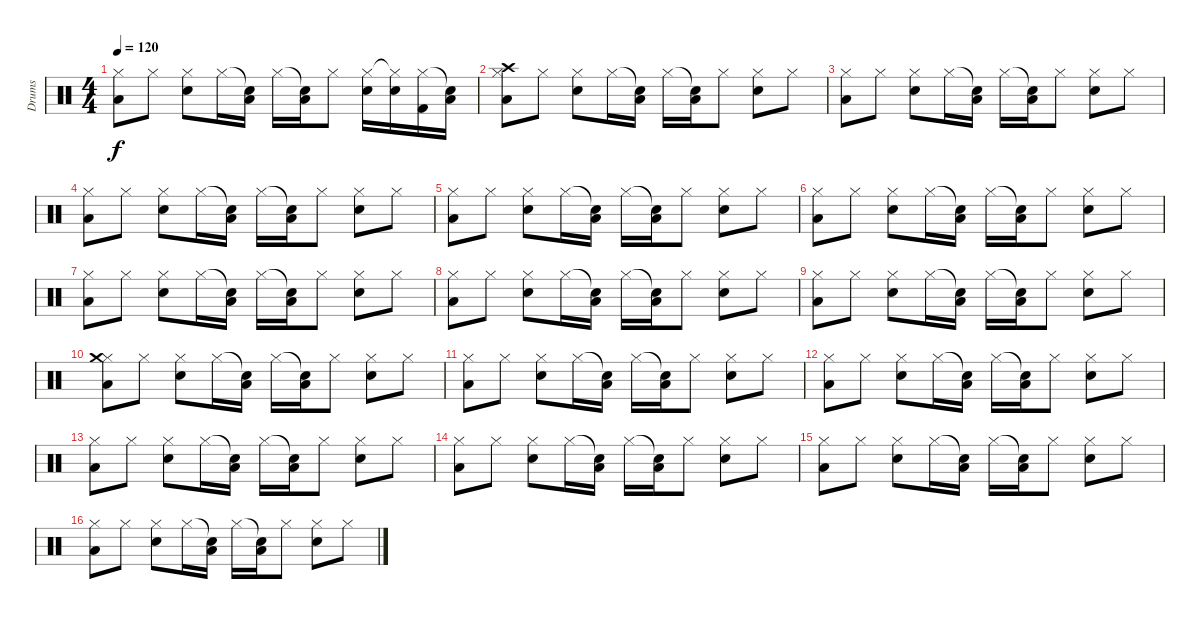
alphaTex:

\track ("Drums" "Drums") {instrument percussion}
\staff {score}
\articulation defaults
\ts (4 4)
\tempo 120
\clef neutral
\ks c
("Hi-Hat (closed)" "Low Tom (hit)").8{dy f} "Hi-Hat (closed)".8 ("Hi-Hat (closed)" "Snare (hit) 2").8 "Hi-Hat (closed)".16 ("Snare (hit)"{t} "Low Tom (hit)").16 "Hi-Hat (closed)".16 ("Snare (hit)"{t} "Low Tom (hit)").16 "Hi-Hat (closed)".8 ("Hi-Hat (closed)" "Snare (hit) 2").16 ("Hi-Hat (closed)"{t} "Snare (hit) 2").16 ("Hi-Hat (closed)" "Kick (hit) 2").16 ("Snare (hit)"{t} "Low Tom (hit)").16 |
("Hi-Hat (closed)" "Low Tom (hit)" "Crash high (hit)").8 "Hi-Hat (closed)".8 ("Hi-Hat (closed)" "Snare (hit) 2").8 "Hi-Hat (closed)".16 ("Snare (hit)"{t} "Low Tom (hit)").16 "Hi-Hat (closed)".16 ("Snare (hit)"{t} "Low Tom (hit)").16 "Hi-Hat (closed)".8 ("Hi-Hat (closed)" "Snare (hit) 2").8 "Hi-Hat (closed)".8 |
("Hi-Hat (closed)" "Low Tom (hit)").8 "Hi-Hat (closed)".8 ("Hi-Hat (closed)" "Snare (hit) 2").8 "Hi-Hat (closed)".16 ("Snare (hit)"{t} "Low Tom (hit)").16 "Hi-Hat (closed)".16 ("Snare (hit)"{t} "Low Tom (hit)").16 "Hi-Hat (closed)".8 ("Hi-Hat (closed)" "Snare (hit) 2").8 "Hi-Hat (closed)".8 |
("Hi-Hat (closed)" "Low Tom (hit)").8 "Hi-Hat (closed)".8 ("Hi-Hat (closed)" "Snare (hit) 2").8 "Hi-Hat (closed)".16 ("Snare (hit)"{t} "Low Tom (hit)").16 "Hi-Hat (closed)".16 ("Snare (hit)"{t} "Low Tom (hit)").16 "Hi-Hat (closed)".8 ("Hi-Hat (closed)" "Snare (hit) 2").8 "Hi-Hat (closed)".8 |
("Hi-Hat (closed)" "Low Tom (hit)").8 "Hi-Hat (closed)".8 ("Hi-Hat (closed)" "Snare (hit) 2").8 "Hi-Hat (closed)".16 ("Snare (hit)"{t} "Low Tom (hit)").16 "Hi-Hat (closed)".16 ("Snare (hit)"{t} "Low Tom (hit)").16 "Hi-Hat (closed)".8 ("Hi-Hat (closed)" "Snare (hit) 2").8 "Hi-Hat (closed)".8 |
("Hi-Hat (closed)" "Low Tom (hit)").8 "Hi-Hat (closed)".8 ("Hi-Hat (closed)" "Snare (hit) 2").8 "Hi-Hat (closed)".16 ("Snare (hit)"{t} "Low Tom (hit)").16 "Hi-Hat (closed)".16 ("Snare (hit)"{t} "Low Tom (hit)").16 "Hi-Hat (closed)".8 ("Hi-Hat (closed)" "Snare (hit) 2").8 "Hi-Hat (closed)".8 |
("Hi-Hat (closed)" "Low Tom (hit)").8 "Hi-Hat (closed)".8 ("Hi-Hat (closed)" "Snare (hit) 2").8 "Hi-Hat (closed)".16 ("Snare (hit)"{t} "Low Tom (hit)").16 "Hi-Hat (closed)".16 ("Snare (hit)"{t} "Low Tom (hit)").16 "Hi-Hat (closed)".8 ("Hi-Hat (closed)" "Snare (hit) 2").8 "Hi-Hat (closed)".8 |
("Hi-Hat (closed)" "Low Tom (hit)").8 "Hi-Hat (closed)".8 ("Hi-Hat (closed)" "Snare (hit) 2").8 "Hi-Hat (closed)".16 ("Snare (hit)"{t} "Low Tom (hit)").16 "Hi-Hat (closed)".16 ("Snare (hit)"{t} "Low Tom (hit)").16 "Hi-Hat (closed)".8 ("Hi-Hat (closed)" "Snare (hit) 2").8 "Hi-Hat (closed)".8 |
("Hi-Hat (closed)" "Low Tom (hit)").8 "Hi-Hat (closed)".8 ("Hi-Hat (closed)" "Snare (hit) 2").8 "Hi-Hat (closed)".16 ("Snare (hit)"{t} "Low Tom (hit)").16 "Hi-Hat (closed)".16 ("Snare (hit)"{t} "Low Tom (hit)").16 "Hi-Hat (closed)".8 ("Hi-Hat (closed)" "Snare (hit) 2").8 "Hi-Hat (closed)".8 |
("Hi-Hat (closed)" "Low Tom (hit)" "Crash medium (hit)").8 "Hi-Hat (closed)".8 ("Hi-Hat (closed)" "Snare (hit) 2").8 "Hi-Hat (closed)".16 ("Snare (hit)"{t} "Low Tom (hit)").16 "Hi-Hat (closed)".16 ("Snare (hit)"{t} "Low Tom (hit)").16 "Hi-Hat (closed)".8 ("Hi-Hat (closed)" "Snare (hit) 2").8 "Hi-Hat (closed)".8 |
("Hi-Hat (closed)" "Low Tom (hit)").8 "Hi-Hat (closed)".8 ("Hi-Hat (closed)" "Snare (hit) 2").8 "Hi-Hat (closed)".16 ("Snare (hit)"{t} "Low Tom (hit)").16 "Hi-Hat (closed)".16 ("Snare (hit)"{t} "Low Tom (hit)").16 "Hi-Hat (closed)".8 ("Hi-Hat (closed)" "Snare (hit) 2").8 "Hi-Hat (closed)".8 |
("Hi-Hat (closed)" "Low Tom (hit)").8 "Hi-Hat (closed)".8 ("Hi-Hat (closed)" "Snare (hit) 2").8 "Hi-Hat (closed)".16 ("Snare (hit)"{t} "Low Tom (hit)").16 "Hi-Hat (closed)".16 ("Snare (hit)"{t} "Low Tom (hit)").16 "Hi-Hat (closed)".8 ("Hi-Hat (closed)" "Snare (hit) 2").8 "Hi-Hat (closed)".8 |
("Hi-Hat (closed)" "Low Tom (hit)").8 "Hi-Hat (closed)".8 ("Hi-Hat (closed)" "Snare (hit) 2").8 "Hi-Hat (closed)".16 ("Snare (hit)"{t} "Low Tom (hit)").16 "Hi-Hat (closed)".16 ("Snare (hit)"{t} "Low Tom (hit)").16 "Hi-Hat (closed)".8 ("Hi-Hat (closed)" "Snare (hit) 2").8 "Hi-Hat (closed)".8 |
("Hi-Hat (closed)" "Low Tom (hit)").8 "Hi-Hat (closed)".8 ("Hi-Hat (closed)" "Snare (hit) 2").8 "Hi-Hat (closed)".16 ("Snare (hit)"{t} "Low Tom (hit)").16 "Hi-Hat (closed)".16 ("Snare (hit)"{t} "Low Tom (hit)").16 "Hi-Hat (closed)".8 ("Hi-Hat (closed)" "Snare (hit) 2").8 "Hi-Hat (closed)".8 |
("Hi-Hat (closed)" "Low Tom (hit)").8 "Hi-Hat (closed)".8 ("Hi-Hat (closed)" "Snare (hit) 2").8 "Hi-Hat (closed)".16 ("Snare (hit)"{t} "Low Tom (hit)").16 "Hi-Hat (closed)".16 ("Snare (hit)"{t} "Low Tom (hit)").16 "Hi-Hat (closed)".8 ("Hi-Hat (closed)" "Snare (hit) 2").8 "Hi-Hat (closed)".8 |
("Hi-Hat (closed)" "Low Tom (hit)").8 "Hi-Hat (closed)".8 ("Hi-Hat (closed)" "Snare (hit) 2").8 "Hi-Hat (closed)".16 ("Snare (hit)"{t} "Low Tom (hit)").16 "Hi-Hat (closed)".16 ("Snare (hit)"{t} "Low Tom (hit)").16 "Hi-Hat (closed)".8 ("Hi-Hat (closed)" "Snare (hit) 2").8 "Hi-Hat (closed)".8
